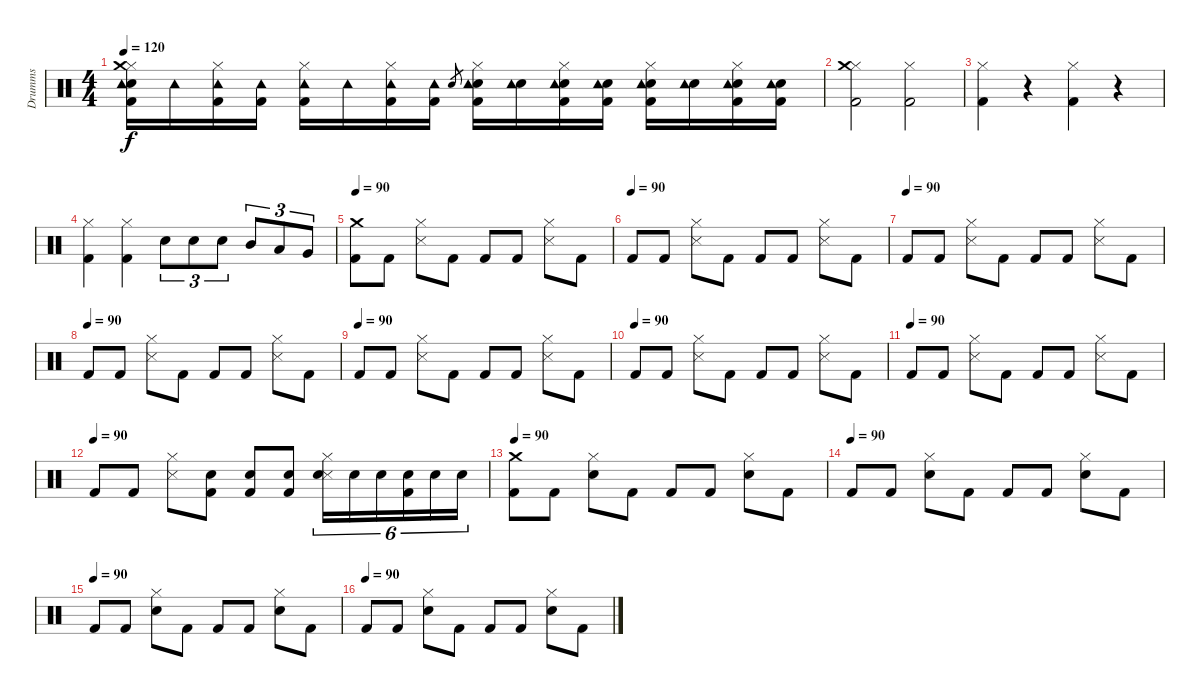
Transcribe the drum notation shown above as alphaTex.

\track ("Drumms" "Drumms") {instrument percussion}
\staff {score}
\articulation defaults
\ts (4 4)
\tempo 120
\clef neutral
\ks c
("Hi-Hat (closed)" "Snare (hit) 2" "Crash medium (hit)" "Kick (hit) 2" "Tambourine (hit)").16{dy f} "Tambourine (hit)".16 ("Hi-Hat (closed)" "Kick (hit) 2" "Tambourine (hit)").16 ("Kick (hit) 2" "Tambourine (hit)").16 ("Hi-Hat (closed)" "Kick (hit) 2" "Tambourine (hit)").16 "Tambourine (hit)".16 ("Hi-Hat (closed)" "Kick (hit) 2" "Tambourine (hit)").16 ("Kick (hit) 2" "Tambourine (hit)").16 "Snare (hit) 2".8{gr} ("Hi-Hat (closed)" "Snare (hit) 2" "Kick (hit) 2" "Tambourine (hit)").16 ("Snare (hit) 2" "Tambourine (hit)").16 ("Hi-Hat (closed)" "Snare (hit) 2" "Kick (hit) 2" "Tambourine (hit)").16 ("Snare (hit) 2" "Kick (hit) 2" "Tambourine (hit)").16 ("Hi-Hat (closed)" "Snare (hit) 2" "Kick (hit) 2" "Tambourine (hit)").16 ("Snare (hit) 2" "Tambourine (hit)").16 ("Hi-Hat (closed)" "Snare (hit) 2" "Kick (hit) 2" "Tambourine (hit)").16 ("Snare (hit) 2" "Kick (hit) 2" "Tambourine (hit)").16 |
("Hi-Hat (closed)" "Kick (hit) 2" "Crash medium (hit)").2 ("Hi-Hat (closed)" "Kick (hit) 2").2 |
("Hi-Hat (closed)" "Kick (hit) 2").4 r.4 ("Hi-Hat (closed)" "Kick (hit) 2").4 r.4 |
("Hi-Hat (closed)" "Kick (hit) 2").4 ("Hi-Hat (closed)" "Kick (hit) 2").4 "Snare (hit) 2".8{tu (3 2)} "Snare (hit) 2".8{tu (3 2)} "Electric Snare (hit)".8{tu (3 2)} "Mid Tom (hit)".8{tu (3 2)} "Low Tom (hit)".8{tu (3 2)} "Very Low Tom (hit)".8{tu (3 2)} |
\tempo 90
("Crash medium (hit)" "Kick (hit) 2").8 "Kick (hit) 2".8 ("Hi-Hat (closed)" "Snare (side stick) 3").8 "Kick (hit) 2".8 "Kick (hit) 2".8 "Kick (hit) 2".8 ("Hi-Hat (closed)" "Snare (side stick) 3").8 "Kick (hit) 2".8 |
\tempo (90)
"Kick (hit) 2".8 "Kick (hit) 2".8 ("Hi-Hat (closed)" "Snare (side stick) 3").8 "Kick (hit) 2".8 "Kick (hit) 2".8 "Kick (hit) 2".8 ("Hi-Hat (closed)" "Snare (side stick) 3").8 "Kick (hit) 2".8 |
\tempo (90)
"Kick (hit) 2".8 "Kick (hit) 2".8 ("Hi-Hat (closed)" "Snare (side stick) 3").8 "Kick (hit) 2".8 "Kick (hit) 2".8 "Kick (hit) 2".8 ("Hi-Hat (closed)" "Snare (side stick) 3").8 "Kick (hit) 2".8 |
\tempo (90)
"Kick (hit) 2".8 "Kick (hit) 2".8 ("Hi-Hat (closed)" "Snare (side stick) 3").8 "Kick (hit) 2".8 "Kick (hit) 2".8 "Kick (hit) 2".8 ("Hi-Hat (closed)" "Snare (side stick) 3").8 "Kick (hit) 2".8 |
\tempo (90)
"Kick (hit) 2".8 "Kick (hit) 2".8 ("Hi-Hat (closed)" "Snare (side stick) 3").8 "Kick (hit) 2".8 "Kick (hit) 2".8 "Kick (hit) 2".8 ("Hi-Hat (closed)" "Snare (side stick) 3").8 "Kick (hit) 2".8 |
\tempo (90)
"Kick (hit) 2".8 "Kick (hit) 2".8 ("Hi-Hat (closed)" "Snare (side stick) 3").8 "Kick (hit) 2".8 "Kick (hit) 2".8 "Kick (hit) 2".8 ("Hi-Hat (closed)" "Snare (side stick) 3").8 "Kick (hit) 2".8 |
\tempo (90)
"Kick (hit) 2".8 "Kick (hit) 2".8 ("Hi-Hat (closed)" "Snare (side stick) 3").8 "Kick (hit) 2".8 "Kick (hit) 2".8 "Kick (hit) 2".8 ("Hi-Hat (closed)" "Snare (side stick) 3").8 "Kick (hit) 2".8 |
\tempo (90)
"Kick (hit) 2".8 "Kick (hit) 2".8 ("Hi-Hat (closed)" "Snare (side stick) 3").8 ("Kick (hit) 2" "Snare (hit) 2").8 ("Kick (hit) 2" "Snare (hit) 2").8 ("Kick (hit) 2" "Snare (hit) 2").8 ("Hi-Hat (closed)" "Snare (side stick) 3" "Snare (hit) 2").16{tu (6 4)} "Snare (hit) 2".16{tu (6 4)} "Snare (hit) 2".16{tu (6 4)} ("Kick (hit) 2" "Snare (hit) 2").16{tu (6 4)} "Snare (hit) 2".16{tu (6 4)} "Snare (hit) 2".16{tu (6 4)} |
\tempo 90
("Crash medium (hit)" "Kick (hit) 2").8 "Kick (hit) 2".8 ("Hi-Hat (closed)" "Snare (hit) 2").8 "Kick (hit) 2".8 "Kick (hit) 2".8 "Kick (hit) 2".8 ("Hi-Hat (closed)" "Snare (hit) 2").8 "Kick (hit) 2".8 |
\tempo (90)
"Kick (hit) 2".8 "Kick (hit) 2".8 ("Hi-Hat (closed)" "Snare (hit) 2").8 "Kick (hit) 2".8 "Kick (hit) 2".8 "Kick (hit) 2".8 ("Hi-Hat (closed)" "Snare (hit) 2").8 "Kick (hit) 2".8 |
\tempo (90)
"Kick (hit) 2".8 "Kick (hit) 2".8 ("Hi-Hat (closed)" "Snare (hit) 2").8 "Kick (hit) 2".8 "Kick (hit) 2".8 "Kick (hit) 2".8 ("Hi-Hat (closed)" "Snare (hit) 2").8 "Kick (hit) 2".8 |
\tempo (90)
"Kick (hit) 2".8 "Kick (hit) 2".8 ("Hi-Hat (closed)" "Snare (hit) 2").8 "Kick (hit) 2".8 "Kick (hit) 2".8 "Kick (hit) 2".8 ("Hi-Hat (closed)" "Snare (hit) 2").8 "Kick (hit) 2".8
